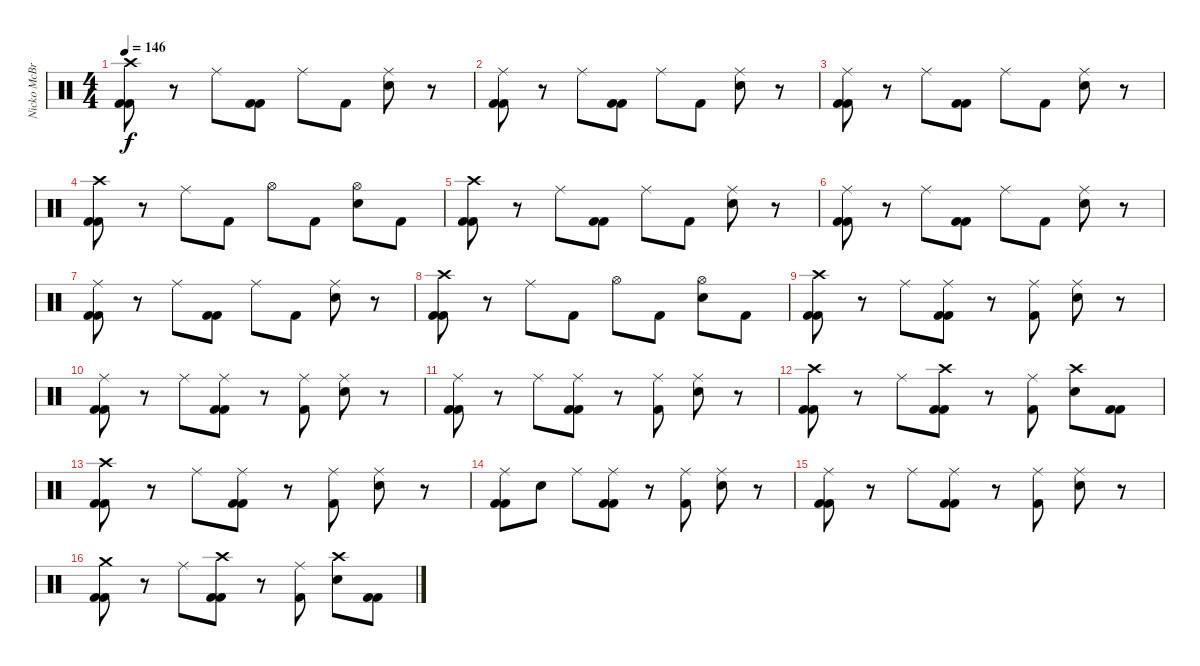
\track ("Nicko McBrain" "Nicko McBr") {instrument percussion}
\staff {score}
\articulation defaults
\ts (4 4)
\tempo 146
\clef neutral
\ks c
("Crash high (hit)" "Kick (hit) 2" "Kick (hit) 2").8{dy f} r.8 "Ride (middle)".8 ("Kick (hit) 2" "Kick (hit) 2").8 "Ride (middle)".8 "Kick (hit) 2".8 ("Ride (middle)" "Snare (hit) 2").8 r.8 |
("Ride (middle)" "Kick (hit) 2" "Kick (hit) 2").8 r.8 "Ride (middle)".8 ("Kick (hit) 2" "Kick (hit) 2").8 "Ride (middle)".8 "Kick (hit) 2".8 ("Ride (middle)" "Snare (hit) 2").8 r.8 |
("Ride (middle)" "Kick (hit) 2" "Kick (hit) 2").8 r.8 "Ride (middle)".8 ("Kick (hit) 2" "Kick (hit) 2").8 "Ride (middle)".8 "Kick (hit) 2".8 ("Ride (middle)" "Snare (hit) 2").8 r.8 |
("Crash high (hit)" "Kick (hit) 2" "Kick (hit) 2").8 r.8 "Ride (middle)".8 "Kick (hit) 2".8 "Hi-Hat (open)".8 "Kick (hit) 2".8 ("Hi-Hat (open)" "Snare (hit) 2").8 "Kick (hit) 2".8 |
("Crash high (hit)" "Kick (hit) 2" "Kick (hit) 2").8 r.8 "Ride (middle)".8 ("Kick (hit) 2" "Kick (hit) 2").8 "Ride (middle)".8 "Kick (hit) 2".8 ("Ride (middle)" "Snare (hit) 2").8 r.8 |
("Ride (middle)" "Kick (hit) 2" "Kick (hit) 2").8 r.8 "Ride (middle)".8 ("Kick (hit) 2" "Kick (hit) 2").8 "Ride (middle)".8 "Kick (hit) 2".8 ("Ride (middle)" "Snare (hit) 2").8 r.8 |
("Ride (middle)" "Kick (hit) 2" "Kick (hit) 2").8 r.8 "Ride (middle)".8 ("Kick (hit) 2" "Kick (hit) 2").8 "Ride (middle)".8 "Kick (hit) 2".8 ("Ride (middle)" "Snare (hit) 2").8 r.8 |
("Crash high (hit)" "Kick (hit) 2" "Kick (hit) 2").8 r.8 "Ride (middle)".8 "Kick (hit) 2".8 "Hi-Hat (open)".8 "Kick (hit) 2".8 ("Hi-Hat (open)" "Snare (hit) 2").8 "Kick (hit) 2".8 |
("Crash high (hit)" "Kick (hit) 2" "Kick (hit) 2").8 r.8 "Ride (middle)".8 ("Ride (middle)" "Kick (hit) 2" "Kick (hit) 2").8 r.8 ("Ride (middle)" "Kick (hit) 2").8 ("Ride (middle)" "Snare (hit) 2").8 r.8 |
("Ride (middle)" "Kick (hit) 2" "Kick (hit) 2").8 r.8 "Ride (middle)".8 ("Ride (middle)" "Kick (hit) 2" "Kick (hit) 2").8 r.8 ("Ride (middle)" "Kick (hit) 2").8 ("Ride (middle)" "Snare (hit) 2").8 r.8 |
("Ride (middle)" "Kick (hit) 2" "Kick (hit) 2").8 r.8 "Ride (middle)".8 ("Ride (middle)" "Kick (hit) 2" "Kick (hit) 2").8 r.8 ("Ride (middle)" "Kick (hit) 2").8 ("Ride (middle)" "Snare (hit) 2").8 r.8 |
("Crash high (hit)" "Kick (hit) 2" "Kick (hit) 2").8 r.8 "Ride (middle)".8 ("Crash high (hit)" "Kick (hit) 2" "Kick (hit) 2").8 r.8 ("Ride (middle)" "Kick (hit) 2").8 ("Crash high (hit)" "Snare (hit) 2").8 ("Kick (hit) 2" "Kick (hit) 2").8 |
("Crash high (hit)" "Kick (hit) 2" "Kick (hit) 2").8 r.8 "Ride (middle)".8 ("Ride (middle)" "Kick (hit) 2" "Kick (hit) 2").8 r.8 ("Ride (middle)" "Kick (hit) 2").8 ("Ride (middle)" "Snare (hit) 2").8 r.8 |
("Ride (middle)" "Kick (hit) 2" "Kick (hit) 2").8 "Snare (hit)".8 "Ride (middle)".8 ("Ride (middle)" "Kick (hit) 2" "Kick (hit) 2").8 r.8 ("Ride (middle)" "Kick (hit) 2").8 ("Ride (middle)" "Snare (hit) 2").8 r.8 |
("Ride (middle)" "Kick (hit) 2" "Kick (hit) 2").8 r.8 "Ride (middle)".8 ("Ride (middle)" "Kick (hit) 2" "Kick (hit) 2").8 r.8 ("Ride (middle)" "Kick (hit) 2").8 ("Ride (middle)" "Snare (hit) 2").8 r.8 |
("Crash medium (hit)" "Kick (hit) 2" "Kick (hit) 2").8 r.8 "Ride (middle)".8 ("Crash high (hit)" "Kick (hit) 2" "Kick (hit) 2").8 r.8 ("Ride (middle)" "Kick (hit) 2").8 ("Crash high (hit)" "Snare (hit) 2").8 ("Kick (hit) 2" "Kick (hit) 2").8
